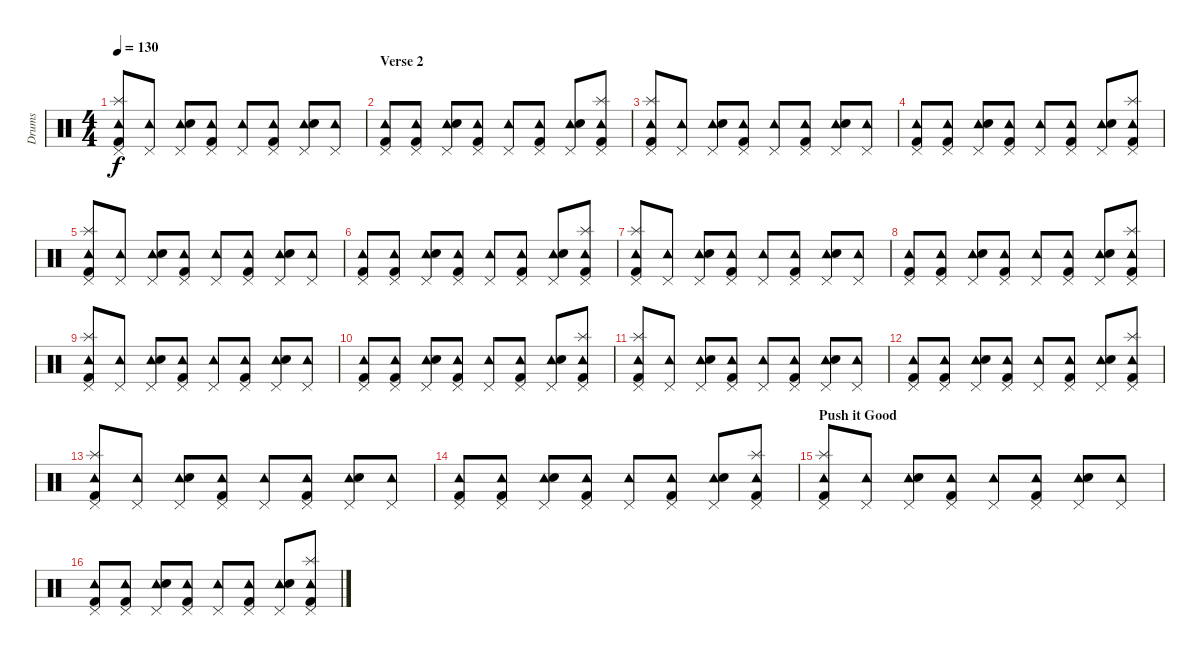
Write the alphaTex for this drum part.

\track ("Drums" "Drums") {instrument percussion}
\staff {score}
\articulation defaults
\ts (4 4)
\tempo 130
\clef neutral
\ks c
("Tambourine (hit)" "Pedal Hi-Hat (hit)" "Splash (hit)" "Kick (hit) 2").8{dy f} ("Tambourine (hit)" "Pedal Hi-Hat (hit)").8 ("Tambourine (hit)" "Pedal Hi-Hat (hit)" "Electric Snare (hit)").8 ("Tambourine (hit)" "Pedal Hi-Hat (hit)" "Kick (hit) 2").8 ("Tambourine (hit)" "Pedal Hi-Hat (hit)").8 ("Tambourine (hit)" "Pedal Hi-Hat (hit)" "Kick (hit) 2").8 ("Tambourine (hit)" "Pedal Hi-Hat (hit)" "Electric Snare (hit)").8 ("Tambourine (hit)" "Pedal Hi-Hat (hit)").8 |
\section ("" "Verse 2")
("Tambourine (hit)" "Pedal Hi-Hat (hit)" "Kick (hit) 2").8 ("Tambourine (hit)" "Pedal Hi-Hat (hit)" "Kick (hit) 2").8 ("Tambourine (hit)" "Pedal Hi-Hat (hit)" "Electric Snare (hit)").8 ("Tambourine (hit)" "Pedal Hi-Hat (hit)" "Kick (hit) 2").8 ("Tambourine (hit)" "Pedal Hi-Hat (hit)").8 ("Tambourine (hit)" "Pedal Hi-Hat (hit)" "Kick (hit) 2").8 ("Tambourine (hit)" "Pedal Hi-Hat (hit)" "Electric Snare (hit)").8 ("Tambourine (hit)" "Pedal Hi-Hat (hit)" "Splash (hit)" "Kick (hit) 2").8 |
("Tambourine (hit)" "Pedal Hi-Hat (hit)" "Splash (hit)" "Kick (hit) 2").8 ("Tambourine (hit)" "Pedal Hi-Hat (hit)").8 ("Tambourine (hit)" "Pedal Hi-Hat (hit)" "Electric Snare (hit)").8 ("Tambourine (hit)" "Pedal Hi-Hat (hit)" "Kick (hit) 2").8 ("Tambourine (hit)" "Pedal Hi-Hat (hit)").8 ("Tambourine (hit)" "Pedal Hi-Hat (hit)" "Kick (hit) 2").8 ("Tambourine (hit)" "Pedal Hi-Hat (hit)" "Electric Snare (hit)").8 ("Tambourine (hit)" "Pedal Hi-Hat (hit)").8 |
("Tambourine (hit)" "Pedal Hi-Hat (hit)" "Kick (hit) 2").8 ("Tambourine (hit)" "Pedal Hi-Hat (hit)" "Kick (hit) 2").8 ("Tambourine (hit)" "Pedal Hi-Hat (hit)" "Electric Snare (hit)").8 ("Tambourine (hit)" "Pedal Hi-Hat (hit)" "Kick (hit) 2").8 ("Tambourine (hit)" "Pedal Hi-Hat (hit)").8 ("Tambourine (hit)" "Pedal Hi-Hat (hit)" "Kick (hit) 2").8 ("Tambourine (hit)" "Pedal Hi-Hat (hit)" "Electric Snare (hit)").8 ("Tambourine (hit)" "Pedal Hi-Hat (hit)" "Splash (hit)" "Kick (hit) 2").8 |
("Tambourine (hit)" "Pedal Hi-Hat (hit)" "Splash (hit)" "Kick (hit) 2").8 ("Tambourine (hit)" "Pedal Hi-Hat (hit)").8 ("Tambourine (hit)" "Pedal Hi-Hat (hit)" "Electric Snare (hit)").8 ("Tambourine (hit)" "Pedal Hi-Hat (hit)" "Kick (hit) 2").8 ("Tambourine (hit)" "Pedal Hi-Hat (hit)").8 ("Tambourine (hit)" "Pedal Hi-Hat (hit)" "Kick (hit) 2").8 ("Tambourine (hit)" "Pedal Hi-Hat (hit)" "Electric Snare (hit)").8 ("Tambourine (hit)" "Pedal Hi-Hat (hit)").8 |
("Tambourine (hit)" "Pedal Hi-Hat (hit)" "Kick (hit) 2").8 ("Tambourine (hit)" "Pedal Hi-Hat (hit)" "Kick (hit) 2").8 ("Tambourine (hit)" "Pedal Hi-Hat (hit)" "Electric Snare (hit)").8 ("Tambourine (hit)" "Pedal Hi-Hat (hit)" "Kick (hit) 2").8 ("Tambourine (hit)" "Pedal Hi-Hat (hit)").8 ("Tambourine (hit)" "Pedal Hi-Hat (hit)" "Kick (hit) 2").8 ("Tambourine (hit)" "Pedal Hi-Hat (hit)" "Electric Snare (hit)").8 ("Tambourine (hit)" "Pedal Hi-Hat (hit)" "Splash (hit)" "Kick (hit) 2").8 |
("Tambourine (hit)" "Pedal Hi-Hat (hit)" "Splash (hit)" "Kick (hit) 2").8 ("Tambourine (hit)" "Pedal Hi-Hat (hit)").8 ("Tambourine (hit)" "Pedal Hi-Hat (hit)" "Electric Snare (hit)").8 ("Tambourine (hit)" "Pedal Hi-Hat (hit)" "Kick (hit) 2").8 ("Tambourine (hit)" "Pedal Hi-Hat (hit)").8 ("Tambourine (hit)" "Pedal Hi-Hat (hit)" "Kick (hit) 2").8 ("Tambourine (hit)" "Pedal Hi-Hat (hit)" "Electric Snare (hit)").8 ("Tambourine (hit)" "Pedal Hi-Hat (hit)").8 |
("Tambourine (hit)" "Pedal Hi-Hat (hit)" "Kick (hit) 2").8 ("Tambourine (hit)" "Pedal Hi-Hat (hit)" "Kick (hit) 2").8 ("Tambourine (hit)" "Pedal Hi-Hat (hit)" "Electric Snare (hit)").8 ("Tambourine (hit)" "Pedal Hi-Hat (hit)" "Kick (hit) 2").8 ("Tambourine (hit)" "Pedal Hi-Hat (hit)").8 ("Tambourine (hit)" "Pedal Hi-Hat (hit)" "Kick (hit) 2").8 ("Tambourine (hit)" "Pedal Hi-Hat (hit)" "Electric Snare (hit)").8 ("Tambourine (hit)" "Pedal Hi-Hat (hit)" "Splash (hit)" "Kick (hit) 2").8 |
("Tambourine (hit)" "Pedal Hi-Hat (hit)" "Splash (hit)" "Kick (hit) 2").8 ("Tambourine (hit)" "Pedal Hi-Hat (hit)").8 ("Tambourine (hit)" "Pedal Hi-Hat (hit)" "Electric Snare (hit)").8 ("Tambourine (hit)" "Pedal Hi-Hat (hit)" "Kick (hit) 2").8 ("Tambourine (hit)" "Pedal Hi-Hat (hit)").8 ("Tambourine (hit)" "Pedal Hi-Hat (hit)" "Kick (hit) 2").8 ("Tambourine (hit)" "Pedal Hi-Hat (hit)" "Electric Snare (hit)").8 ("Tambourine (hit)" "Pedal Hi-Hat (hit)").8 |
("Tambourine (hit)" "Pedal Hi-Hat (hit)" "Kick (hit) 2").8 ("Tambourine (hit)" "Pedal Hi-Hat (hit)" "Kick (hit) 2").8 ("Tambourine (hit)" "Pedal Hi-Hat (hit)" "Electric Snare (hit)").8 ("Tambourine (hit)" "Pedal Hi-Hat (hit)" "Kick (hit) 2").8 ("Tambourine (hit)" "Pedal Hi-Hat (hit)").8 ("Tambourine (hit)" "Pedal Hi-Hat (hit)" "Kick (hit) 2").8 ("Tambourine (hit)" "Pedal Hi-Hat (hit)" "Electric Snare (hit)").8 ("Tambourine (hit)" "Pedal Hi-Hat (hit)" "Splash (hit)" "Kick (hit) 2").8 |
("Tambourine (hit)" "Pedal Hi-Hat (hit)" "Splash (hit)" "Kick (hit) 2").8 ("Tambourine (hit)" "Pedal Hi-Hat (hit)").8 ("Tambourine (hit)" "Pedal Hi-Hat (hit)" "Electric Snare (hit)").8 ("Tambourine (hit)" "Pedal Hi-Hat (hit)" "Kick (hit) 2").8 ("Tambourine (hit)" "Pedal Hi-Hat (hit)").8 ("Tambourine (hit)" "Pedal Hi-Hat (hit)" "Kick (hit) 2").8 ("Tambourine (hit)" "Pedal Hi-Hat (hit)" "Electric Snare (hit)").8 ("Tambourine (hit)" "Pedal Hi-Hat (hit)").8 |
("Tambourine (hit)" "Pedal Hi-Hat (hit)" "Kick (hit) 2").8 ("Tambourine (hit)" "Pedal Hi-Hat (hit)" "Kick (hit) 2").8 ("Tambourine (hit)" "Pedal Hi-Hat (hit)" "Electric Snare (hit)").8 ("Tambourine (hit)" "Pedal Hi-Hat (hit)" "Kick (hit) 2").8 ("Tambourine (hit)" "Pedal Hi-Hat (hit)").8 ("Tambourine (hit)" "Pedal Hi-Hat (hit)" "Kick (hit) 2").8 ("Tambourine (hit)" "Pedal Hi-Hat (hit)" "Electric Snare (hit)").8 ("Tambourine (hit)" "Pedal Hi-Hat (hit)" "Splash (hit)" "Kick (hit) 2").8 |
("Tambourine (hit)" "Pedal Hi-Hat (hit)" "Splash (hit)" "Kick (hit) 2").8 ("Tambourine (hit)" "Pedal Hi-Hat (hit)").8 ("Tambourine (hit)" "Pedal Hi-Hat (hit)" "Electric Snare (hit)").8 ("Tambourine (hit)" "Pedal Hi-Hat (hit)" "Kick (hit) 2").8 ("Tambourine (hit)" "Pedal Hi-Hat (hit)").8 ("Tambourine (hit)" "Pedal Hi-Hat (hit)" "Kick (hit) 2").8 ("Tambourine (hit)" "Pedal Hi-Hat (hit)" "Electric Snare (hit)").8 ("Tambourine (hit)" "Pedal Hi-Hat (hit)").8 |
("Tambourine (hit)" "Pedal Hi-Hat (hit)" "Kick (hit) 2").8 ("Tambourine (hit)" "Pedal Hi-Hat (hit)" "Kick (hit) 2").8 ("Tambourine (hit)" "Pedal Hi-Hat (hit)" "Electric Snare (hit)").8 ("Tambourine (hit)" "Pedal Hi-Hat (hit)" "Kick (hit) 2").8 ("Tambourine (hit)" "Pedal Hi-Hat (hit)").8 ("Tambourine (hit)" "Pedal Hi-Hat (hit)" "Kick (hit) 2").8 ("Tambourine (hit)" "Pedal Hi-Hat (hit)" "Electric Snare (hit)").8 ("Tambourine (hit)" "Pedal Hi-Hat (hit)" "Splash (hit)" "Kick (hit) 2").8 |
\section ("" "Push it Good")
("Tambourine (hit)" "Pedal Hi-Hat (hit)" "Splash (hit)" "Kick (hit) 2").8 ("Tambourine (hit)" "Pedal Hi-Hat (hit)").8 ("Tambourine (hit)" "Pedal Hi-Hat (hit)" "Electric Snare (hit)").8 ("Tambourine (hit)" "Pedal Hi-Hat (hit)" "Kick (hit) 2").8 ("Tambourine (hit)" "Pedal Hi-Hat (hit)").8 ("Tambourine (hit)" "Pedal Hi-Hat (hit)" "Kick (hit) 2").8 ("Tambourine (hit)" "Pedal Hi-Hat (hit)" "Electric Snare (hit)").8 ("Tambourine (hit)" "Pedal Hi-Hat (hit)").8 |
("Tambourine (hit)" "Pedal Hi-Hat (hit)" "Kick (hit) 2").8 ("Tambourine (hit)" "Pedal Hi-Hat (hit)" "Kick (hit) 2").8 ("Tambourine (hit)" "Pedal Hi-Hat (hit)" "Electric Snare (hit)").8 ("Tambourine (hit)" "Pedal Hi-Hat (hit)" "Kick (hit) 2").8 ("Tambourine (hit)" "Pedal Hi-Hat (hit)").8 ("Tambourine (hit)" "Pedal Hi-Hat (hit)" "Kick (hit) 2").8 ("Tambourine (hit)" "Pedal Hi-Hat (hit)" "Electric Snare (hit)").8 ("Tambourine (hit)" "Pedal Hi-Hat (hit)" "Splash (hit)" "Kick (hit) 2").8
